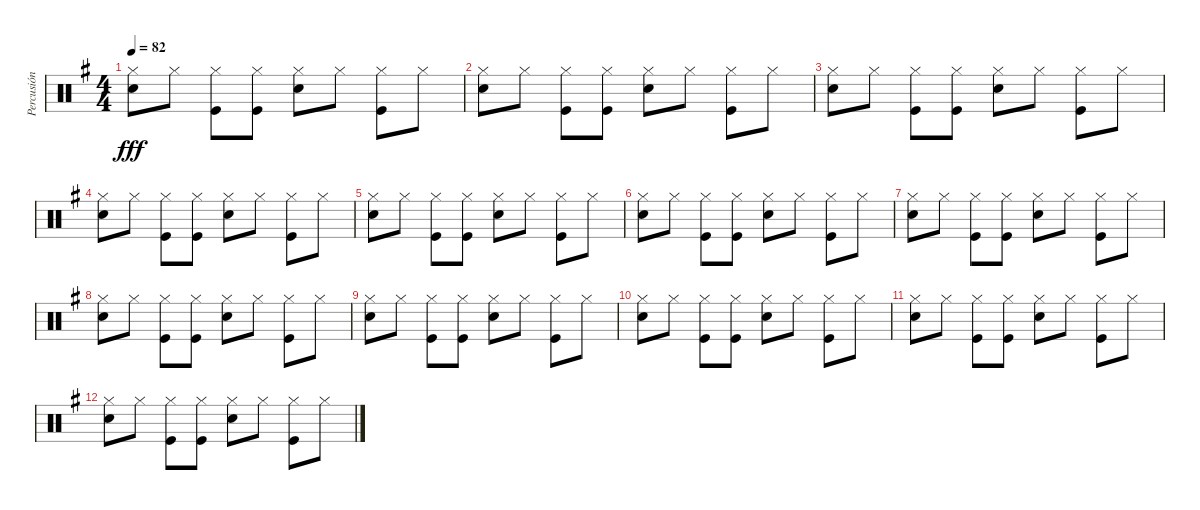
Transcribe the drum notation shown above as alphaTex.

\track ("Percusión" "Percusión") {instrument percussion}
\staff {score}
\articulation defaults
\ts (4 4)
\tempo 82
\clef neutral
\ks eminor
("Hi-Hat (closed)" "Snare (hit) 2").8{dy fff} "Hi-Hat (closed)".8 ("Hi-Hat (closed)" "Kick (hit)").8 ("Hi-Hat (closed)" "Kick (hit)").8 ("Hi-Hat (closed)" "Snare (hit) 2").8 "Hi-Hat (closed)".8 ("Hi-Hat (closed)" "Kick (hit)").8 "Hi-Hat (closed)".8 |
("Hi-Hat (closed)" "Snare (hit) 2").8 "Hi-Hat (closed)".8 ("Hi-Hat (closed)" "Kick (hit)").8 ("Hi-Hat (closed)" "Kick (hit)").8 ("Hi-Hat (closed)" "Snare (hit) 2").8 "Hi-Hat (closed)".8 ("Hi-Hat (closed)" "Kick (hit)").8 "Hi-Hat (closed)".8 |
("Hi-Hat (closed)" "Snare (hit) 2").8 "Hi-Hat (closed)".8 ("Hi-Hat (closed)" "Kick (hit)").8 ("Hi-Hat (closed)" "Kick (hit)").8 ("Hi-Hat (closed)" "Snare (hit) 2").8 "Hi-Hat (closed)".8 ("Hi-Hat (closed)" "Kick (hit)").8 "Hi-Hat (closed)".8 |
("Hi-Hat (closed)" "Snare (hit) 2").8 "Hi-Hat (closed)".8 ("Hi-Hat (closed)" "Kick (hit)").8 ("Hi-Hat (closed)" "Kick (hit)").8 ("Hi-Hat (closed)" "Snare (hit) 2").8 "Hi-Hat (closed)".8 ("Hi-Hat (closed)" "Kick (hit)").8 "Hi-Hat (closed)".8 |
("Hi-Hat (closed)" "Snare (hit) 2").8 "Hi-Hat (closed)".8 ("Hi-Hat (closed)" "Kick (hit)").8 ("Hi-Hat (closed)" "Kick (hit)").8 ("Hi-Hat (closed)" "Snare (hit) 2").8 "Hi-Hat (closed)".8 ("Hi-Hat (closed)" "Kick (hit)").8 "Hi-Hat (closed)".8 |
("Hi-Hat (closed)" "Snare (hit) 2").8 "Hi-Hat (closed)".8 ("Hi-Hat (closed)" "Kick (hit)").8 ("Hi-Hat (closed)" "Kick (hit)").8 ("Hi-Hat (closed)" "Snare (hit) 2").8 "Hi-Hat (closed)".8 ("Hi-Hat (closed)" "Kick (hit)").8 "Hi-Hat (closed)".8 |
("Hi-Hat (closed)" "Snare (hit) 2").8 "Hi-Hat (closed)".8 ("Hi-Hat (closed)" "Kick (hit)").8 ("Hi-Hat (closed)" "Kick (hit)").8 ("Hi-Hat (closed)" "Snare (hit) 2").8 "Hi-Hat (closed)".8 ("Hi-Hat (closed)" "Kick (hit)").8 "Hi-Hat (closed)".8 |
("Hi-Hat (closed)" "Snare (hit) 2").8 "Hi-Hat (closed)".8 ("Hi-Hat (closed)" "Kick (hit)").8 ("Hi-Hat (closed)" "Kick (hit)").8 ("Hi-Hat (closed)" "Snare (hit) 2").8 "Hi-Hat (closed)".8 ("Hi-Hat (closed)" "Kick (hit)").8 "Hi-Hat (closed)".8 |
("Hi-Hat (closed)" "Snare (hit) 2").8 "Hi-Hat (closed)".8 ("Hi-Hat (closed)" "Kick (hit)").8 ("Hi-Hat (closed)" "Kick (hit)").8 ("Hi-Hat (closed)" "Snare (hit) 2").8 "Hi-Hat (closed)".8 ("Hi-Hat (closed)" "Kick (hit)").8 "Hi-Hat (closed)".8 |
("Hi-Hat (closed)" "Snare (hit) 2").8 "Hi-Hat (closed)".8 ("Hi-Hat (closed)" "Kick (hit)").8 ("Hi-Hat (closed)" "Kick (hit)").8 ("Hi-Hat (closed)" "Snare (hit) 2").8 "Hi-Hat (closed)".8 ("Hi-Hat (closed)" "Kick (hit)").8 "Hi-Hat (closed)".8 |
("Hi-Hat (closed)" "Snare (hit) 2").8 "Hi-Hat (closed)".8 ("Hi-Hat (closed)" "Kick (hit)").8 ("Hi-Hat (closed)" "Kick (hit)").8 ("Hi-Hat (closed)" "Snare (hit) 2").8 "Hi-Hat (closed)".8 ("Hi-Hat (closed)" "Kick (hit)").8 "Hi-Hat (closed)".8 |
("Hi-Hat (closed)" "Snare (hit) 2").8 "Hi-Hat (closed)".8 ("Hi-Hat (closed)" "Kick (hit)").8 ("Hi-Hat (closed)" "Kick (hit)").8 ("Hi-Hat (closed)" "Snare (hit) 2").8 "Hi-Hat (closed)".8 ("Hi-Hat (closed)" "Kick (hit)").8 "Hi-Hat (closed)".8
